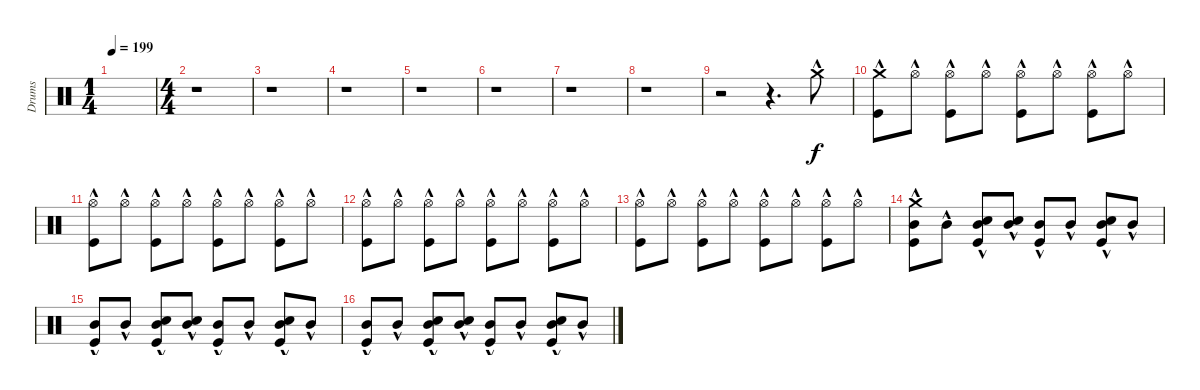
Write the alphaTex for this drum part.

\track ("Drumkit" "Drums") {instrument percussion}
\staff {score}
\articulation defaults
\ts (1 4)
\tempo 199
\clef neutral
\ks c
|
\ts (4 4)
r.1 |
r.1 |
r.1 |
r.1 |
r.1 |
r.1 |
r.1 |
r.2 r.4{d} "Crash medium (hit)"{hac}.8 |
("Crash medium (hit)"{hac} "Kick (hit)"{hac}).8 "Hi-Hat (open)"{hac}.8 ("Hi-Hat (open)"{hac} "Kick (hit)"{hac}).8 "Hi-Hat (open)"{hac}.8 ("Hi-Hat (open)"{hac} "Kick (hit)"{hac}).8 "Hi-Hat (open)"{hac}.8 ("Hi-Hat (open)"{hac} "Kick (hit)"{hac}).8 "Hi-Hat (open)"{hac}.8 |
("Hi-Hat (open)"{hac} "Kick (hit)"{hac}).8 "Hi-Hat (open)"{hac}.8 ("Hi-Hat (open)"{hac} "Kick (hit)"{hac}).8 "Hi-Hat (open)"{hac}.8 ("Hi-Hat (open)"{hac} "Kick (hit)"{hac}).8 "Hi-Hat (open)"{hac}.8 ("Hi-Hat (open)"{hac} "Kick (hit)"{hac}).8 "Hi-Hat (open)"{hac}.8 |
("Hi-Hat (open)"{hac} "Kick (hit)"{hac}).8 "Hi-Hat (open)"{hac}.8 ("Hi-Hat (open)"{hac} "Kick (hit)"{hac}).8 "Hi-Hat (open)"{hac}.8 ("Hi-Hat (open)"{hac} "Kick (hit)"{hac}).8 "Hi-Hat (open)"{hac}.8 ("Hi-Hat (open)"{hac} "Kick (hit)"{hac}).8 "Hi-Hat (open)"{hac}.8 |
("Hi-Hat (open)"{hac} "Kick (hit)"{hac}).8 "Hi-Hat (open)"{hac}.8 ("Hi-Hat (open)"{hac} "Kick (hit)"{hac}).8 "Hi-Hat (open)"{hac}.8 ("Hi-Hat (open)"{hac} "Kick (hit)"{hac}).8 "Hi-Hat (open)"{hac}.8 ("Hi-Hat (open)"{hac} "Kick (hit)"{hac}).8 "Hi-Hat (open)"{hac}.8 |
("Mid Tom (hit)"{hac} "Kick (hit)"{hac} "Crash medium (hit)"{hac}).8 "Mid Tom (hit)"{hac}.8 ("Mid Tom (hit)"{hac} "Kick (hit)"{hac} "Snare (hit) 2"{hac}).8 ("Mid Tom (hit)"{hac} "Snare (hit) 2"{hac}).8 ("Mid Tom (hit)"{hac} "Kick (hit)"{hac}).8 "Mid Tom (hit)"{hac}.8 ("Mid Tom (hit)"{hac} "Kick (hit)"{hac} "Snare (hit) 2"{hac}).8 "Mid Tom (hit)"{hac}.8 |
("Mid Tom (hit)"{hac} "Kick (hit)"{hac}).8 "Mid Tom (hit)"{hac}.8 ("Mid Tom (hit)"{hac} "Kick (hit)"{hac} "Snare (hit) 2"{hac}).8 ("Mid Tom (hit)"{hac} "Snare (hit) 2"{hac}).8 ("Mid Tom (hit)"{hac} "Kick (hit)"{hac}).8 "Mid Tom (hit)"{hac}.8 ("Mid Tom (hit)"{hac} "Kick (hit)"{hac} "Snare (hit) 2"{hac}).8 "Mid Tom (hit)"{hac}.8 |
("Mid Tom (hit)"{hac} "Kick (hit)"{hac}).8 "Mid Tom (hit)"{hac}.8 ("Mid Tom (hit)"{hac} "Kick (hit)"{hac} "Snare (hit) 2"{hac}).8 ("Mid Tom (hit)"{hac} "Snare (hit) 2"{hac}).8 ("Mid Tom (hit)"{hac} "Kick (hit)"{hac}).8 "Mid Tom (hit)"{hac}.8 ("Mid Tom (hit)"{hac} "Kick (hit)"{hac} "Snare (hit) 2"{hac}).8 "Mid Tom (hit)"{hac}.8
